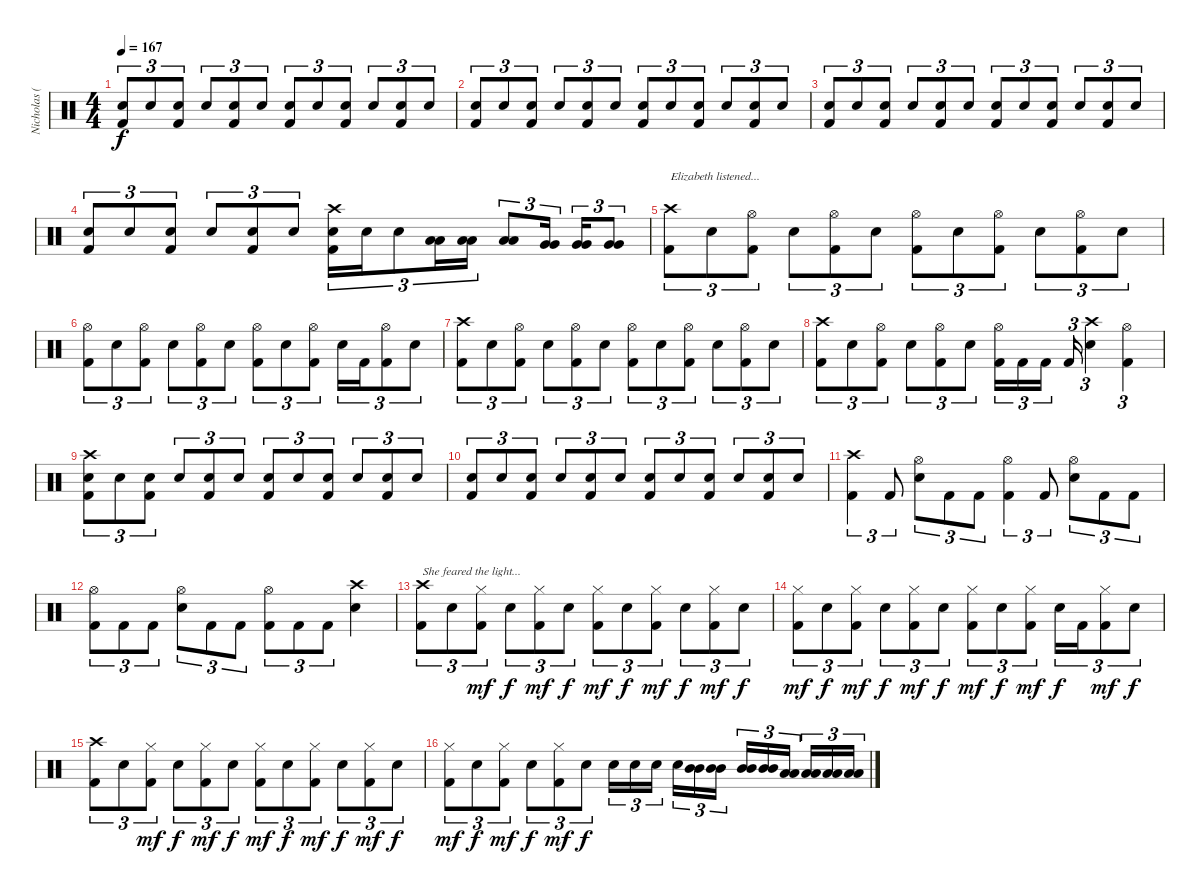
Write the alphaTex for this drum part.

\track ("Nicholas (Drums)" "Nicholas (") {instrument percussion}
\staff {score}
\articulation defaults
\ts (4 4)
\tempo 167
\clef neutral
\ks c
("Electric Snare (hit)" "Kick (hit) 2").8{tu (3 2) dy f} "Electric Snare (hit)".8{tu (3 2)} ("Electric Snare (hit)" "Kick (hit) 2").8{tu (3 2)} "Electric Snare (hit)".8{tu (3 2)} ("Electric Snare (hit)" "Kick (hit) 2").8{tu (3 2)} "Electric Snare (hit)".8{tu (3 2)} ("Electric Snare (hit)" "Kick (hit) 2").8{tu (3 2)} "Electric Snare (hit)".8{tu (3 2)} ("Electric Snare (hit)" "Kick (hit) 2").8{tu (3 2)} "Electric Snare (hit)".8{tu (3 2)} ("Electric Snare (hit)" "Kick (hit) 2").8{tu (3 2)} "Electric Snare (hit)".8{tu (3 2)} |
("Electric Snare (hit)" "Kick (hit) 2").8{tu (3 2)} "Electric Snare (hit)".8{tu (3 2)} ("Electric Snare (hit)" "Kick (hit) 2").8{tu (3 2)} "Electric Snare (hit)".8{tu (3 2)} ("Electric Snare (hit)" "Kick (hit) 2").8{tu (3 2)} "Electric Snare (hit)".8{tu (3 2)} ("Electric Snare (hit)" "Kick (hit) 2").8{tu (3 2)} "Electric Snare (hit)".8{tu (3 2)} ("Electric Snare (hit)" "Kick (hit) 2").8{tu (3 2)} "Electric Snare (hit)".8{tu (3 2)} ("Electric Snare (hit)" "Kick (hit) 2").8{tu (3 2)} "Electric Snare (hit)".8{tu (3 2)} |
("Electric Snare (hit)" "Kick (hit) 2").8{tu (3 2)} "Electric Snare (hit)".8{tu (3 2)} ("Electric Snare (hit)" "Kick (hit) 2").8{tu (3 2)} "Electric Snare (hit)".8{tu (3 2)} ("Electric Snare (hit)" "Kick (hit) 2").8{tu (3 2)} "Electric Snare (hit)".8{tu (3 2)} ("Electric Snare (hit)" "Kick (hit) 2").8{tu (3 2)} "Electric Snare (hit)".8{tu (3 2)} ("Electric Snare (hit)" "Kick (hit) 2").8{tu (3 2)} "Electric Snare (hit)".8{tu (3 2)} ("Electric Snare (hit)" "Kick (hit) 2").8{tu (3 2)} "Electric Snare (hit)".8{tu (3 2)} |
("Electric Snare (hit)" "Kick (hit) 2").8{tu (3 2)} "Electric Snare (hit)".8{tu (3 2)} ("Electric Snare (hit)" "Kick (hit) 2").8{tu (3 2)} "Electric Snare (hit)".8{tu (3 2)} ("Electric Snare (hit)" "Kick (hit) 2").8{tu (3 2)} "Electric Snare (hit)".8{tu (3 2)} ("Crash high (hit)" "Electric Snare (hit)" "Kick (hit) 2").16{tu (3 2)} "Electric Snare (hit)".16{tu (3 2)} "Electric Snare (hit)".8{tu (3 2)} ("Low Tom (hit)" "Low Tom (hit)").16{tu (3 2)} ("Low Tom (hit)" "Low Tom (hit)").16{tu (3 2)} ("Low Tom (hit)" "Low Tom (hit)").8{tu (3 2)} ("Very Low Tom (hit)" "Very Low Tom (hit)").16{tu (3 2)} ("Very Low Tom (hit)" "Very Low Tom (hit)").16{tu (3 2)} ("Very Low Tom (hit)" "Very Low Tom (hit)").8{tu (3 2)} |
("Crash high (hit)" "Kick (hit) 2").8{tu (3 2) txt "Elizabeth listened..."} "Electric Snare (hit)".8{tu (3 2)} ("Hi-Hat (open)" "Kick (hit) 2").8{tu (3 2)} "Electric Snare (hit)".8{tu (3 2)} ("Hi-Hat (open)" "Kick (hit) 2").8{tu (3 2)} "Electric Snare (hit)".8{tu (3 2)} ("Hi-Hat (open)" "Kick (hit) 2").8{tu (3 2)} "Electric Snare (hit)".8{tu (3 2)} ("Hi-Hat (open)" "Kick (hit) 2").8{tu (3 2)} "Electric Snare (hit)".8{tu (3 2)} ("Hi-Hat (open)" "Kick (hit) 2").8{tu (3 2)} "Electric Snare (hit)".8{tu (3 2)} |
("Hi-Hat (open)" "Kick (hit) 2").8{tu (3 2)} "Electric Snare (hit)".8{tu (3 2)} ("Hi-Hat (open)" "Kick (hit) 2").8{tu (3 2)} "Electric Snare (hit)".8{tu (3 2)} ("Hi-Hat (open)" "Kick (hit) 2").8{tu (3 2)} "Electric Snare (hit)".8{tu (3 2)} ("Hi-Hat (open)" "Kick (hit) 2").8{tu (3 2)} "Electric Snare (hit)".8{tu (3 2)} ("Hi-Hat (open)" "Kick (hit) 2").8{tu (3 2)} "Electric Snare (hit)".16{tu (3 2)} "Kick (hit) 2".16{tu (3 2)} ("Hi-Hat (open)" "Kick (hit) 2").8{tu (3 2)} "Electric Snare (hit)".8{tu (3 2)} |
("Crash high (hit)" "Kick (hit) 2").8{tu (3 2)} "Electric Snare (hit)".8{tu (3 2)} ("Hi-Hat (open)" "Kick (hit) 2").8{tu (3 2)} "Electric Snare (hit)".8{tu (3 2)} ("Hi-Hat (open)" "Kick (hit) 2").8{tu (3 2)} "Electric Snare (hit)".8{tu (3 2)} ("Hi-Hat (open)" "Kick (hit) 2").8{tu (3 2)} "Electric Snare (hit)".8{tu (3 2)} ("Hi-Hat (open)" "Kick (hit) 2").8{tu (3 2)} "Electric Snare (hit)".8{tu (3 2)} ("Hi-Hat (open)" "Kick (hit) 2").8{tu (3 2)} "Electric Snare (hit)".8{tu (3 2)} |
("Crash high (hit)" "Kick (hit) 2").8{tu (3 2)} "Electric Snare (hit)".8{tu (3 2)} ("Hi-Hat (open)" "Kick (hit) 2").8{tu (3 2)} "Electric Snare (hit)".8{tu (3 2)} ("Hi-Hat (open)" "Kick (hit) 2").8{tu (3 2)} "Electric Snare (hit)".8{tu (3 2)} ("Hi-Hat (open)" "Kick (hit) 2").16{tu (3 2)} "Kick (hit) 2".16{tu (3 2)} "Kick (hit) 2".16{tu (3 2)} "Kick (hit) 2".16{tu (3 2)} ("Crash high (hit)" "Electric Snare (hit)").4{tu (3 2)} ("Hi-Hat (open)" "Kick (hit) 2").4{tu (3 2)} |
("Crash high (hit)" "Electric Snare (hit)" "Kick (hit) 2").8{tu (3 2)} "Electric Snare (hit)".8{tu (3 2)} ("Electric Snare (hit)" "Kick (hit) 2").8{tu (3 2)} "Electric Snare (hit)".8{tu (3 2)} ("Electric Snare (hit)" "Kick (hit) 2").8{tu (3 2)} "Electric Snare (hit)".8{tu (3 2)} ("Electric Snare (hit)" "Kick (hit) 2").8{tu (3 2)} "Electric Snare (hit)".8{tu (3 2)} ("Electric Snare (hit)" "Kick (hit) 2").8{tu (3 2)} "Electric Snare (hit)".8{tu (3 2)} ("Electric Snare (hit)" "Kick (hit) 2").8{tu (3 2)} "Electric Snare (hit)".8{tu (3 2)} |
("Electric Snare (hit)" "Kick (hit) 2").8{tu (3 2)} "Electric Snare (hit)".8{tu (3 2)} ("Electric Snare (hit)" "Kick (hit) 2").8{tu (3 2)} "Electric Snare (hit)".8{tu (3 2)} ("Electric Snare (hit)" "Kick (hit) 2").8{tu (3 2)} "Electric Snare (hit)".8{tu (3 2)} ("Electric Snare (hit)" "Kick (hit) 2").8{tu (3 2)} "Electric Snare (hit)".8{tu (3 2)} ("Electric Snare (hit)" "Kick (hit) 2").8{tu (3 2)} "Electric Snare (hit)".8{tu (3 2)} ("Electric Snare (hit)" "Kick (hit) 2").8{tu (3 2)} "Electric Snare (hit)".8{tu (3 2)} |
("Crash high (hit)" "Kick (hit) 2").4{tu (3 2)} "Kick (hit) 2".8{tu (3 2)} ("Hi-Hat (open)" "Electric Snare (hit)").8{tu (3 2)} "Kick (hit) 2".8{tu (3 2)} "Kick (hit) 2".8{tu (3 2)} ("Hi-Hat (open)" "Kick (hit) 2").4{tu (3 2)} "Kick (hit) 2".8{tu (3 2)} ("Hi-Hat (open)" "Electric Snare (hit)").8{tu (3 2)} "Kick (hit) 2".8{tu (3 2)} "Kick (hit) 2".8{tu (3 2)} |
("Hi-Hat (open)" "Kick (hit) 2").8{tu (3 2)} "Kick (hit) 2".8{tu (3 2)} "Kick (hit) 2".8{tu (3 2)} ("Hi-Hat (open)" "Electric Snare (hit)").8{tu (3 2)} "Kick (hit) 2".8{tu (3 2)} "Kick (hit) 2".8{tu (3 2)} ("Hi-Hat (open)" "Kick (hit) 2").8{tu (3 2)} "Kick (hit) 2".8{tu (3 2)} "Kick (hit) 2".8{tu (3 2)} ("Crash high (hit)" "Electric Snare (hit)").4 |
("Crash high (hit)" "Kick (hit) 2").8{tu (3 2) txt "She feared the light..."} "Electric Snare (hit)".8{tu (3 2)} ("Hi-Hat (closed)" "Kick (hit) 2").8{tu (3 2) dy mf} "Electric Snare (hit)".8{tu (3 2) dy f} ("Hi-Hat (closed)" "Kick (hit) 2").8{tu (3 2) dy mf} "Electric Snare (hit)".8{tu (3 2) dy f} ("Hi-Hat (closed)" "Kick (hit) 2").8{tu (3 2) dy mf} "Electric Snare (hit)".8{tu (3 2) dy f} ("Hi-Hat (closed)" "Kick (hit) 2").8{tu (3 2) dy mf} "Electric Snare (hit)".8{tu (3 2) dy f} ("Hi-Hat (closed)" "Kick (hit) 2").8{tu (3 2) dy mf} "Electric Snare (hit)".8{tu (3 2) dy f} |
("Hi-Hat (closed)" "Kick (hit) 2").8{tu (3 2) dy mf} "Electric Snare (hit)".8{tu (3 2) dy f} ("Hi-Hat (closed)" "Kick (hit) 2").8{tu (3 2) dy mf} "Electric Snare (hit)".8{tu (3 2) dy f} ("Hi-Hat (closed)" "Kick (hit) 2").8{tu (3 2) dy mf} "Electric Snare (hit)".8{tu (3 2) dy f} ("Hi-Hat (closed)" "Kick (hit) 2").8{tu (3 2) dy mf} "Electric Snare (hit)".8{tu (3 2) dy f} ("Hi-Hat (closed)" "Kick (hit) 2").8{tu (3 2) dy mf} "Electric Snare (hit)".16{tu (3 2) dy f} "Kick (hit) 2".16{tu (3 2)} ("Hi-Hat (closed)" "Kick (hit) 2").8{tu (3 2) dy mf} "Electric Snare (hit)".8{tu (3 2) dy f} |
("Crash high (hit)" "Kick (hit) 2").8{tu (3 2)} "Electric Snare (hit)".8{tu (3 2)} ("Hi-Hat (closed)" "Kick (hit) 2").8{tu (3 2) dy mf} "Electric Snare (hit)".8{tu (3 2) dy f} ("Hi-Hat (closed)" "Kick (hit) 2").8{tu (3 2) dy mf} "Electric Snare (hit)".8{tu (3 2) dy f} ("Hi-Hat (closed)" "Kick (hit) 2").8{tu (3 2) dy mf} "Electric Snare (hit)".8{tu (3 2) dy f} ("Hi-Hat (closed)" "Kick (hit) 2").8{tu (3 2) dy mf} "Electric Snare (hit)".8{tu (3 2) dy f} ("Hi-Hat (closed)" "Kick (hit) 2").8{tu (3 2) dy mf} "Electric Snare (hit)".8{tu (3 2) dy f} |
("Hi-Hat (closed)" "Kick (hit) 2").8{tu (3 2) dy mf} "Electric Snare (hit)".8{tu (3 2) dy f} ("Hi-Hat (closed)" "Kick (hit) 2").8{tu (3 2) dy mf} "Electric Snare (hit)".8{tu (3 2) dy f} ("Hi-Hat (closed)" "Kick (hit) 2").8{tu (3 2) dy mf} "Electric Snare (hit)".8{tu (3 2) dy f} "Electric Snare (hit)".16{tu (3 2)} "Electric Snare (hit)".16{tu (3 2)} "Electric Snare (hit)".16{tu (3 2)} "Electric Snare (hit)".16{tu (3 2)} ("Mid Tom (hit)" "Mid Tom (hit)").16{tu (3 2)} ("Mid Tom (hit)" "Mid Tom (hit)").16{tu (3 2)} ("Mid Tom (hit)" "Mid Tom (hit)").16{tu (3 2)} ("Mid Tom (hit)" "Mid Tom (hit)").16{tu (3 2)} ("Low Tom (hit)" "Low Tom (hit)").16{tu (3 2)} ("Low Tom (hit)" "Low Tom (hit)").16{tu (3 2)} ("Low Tom (hit)" "Low Tom (hit)").16{tu (3 2)} ("Low Tom (hit)" "Low Tom (hit)").16{tu (3 2)}
